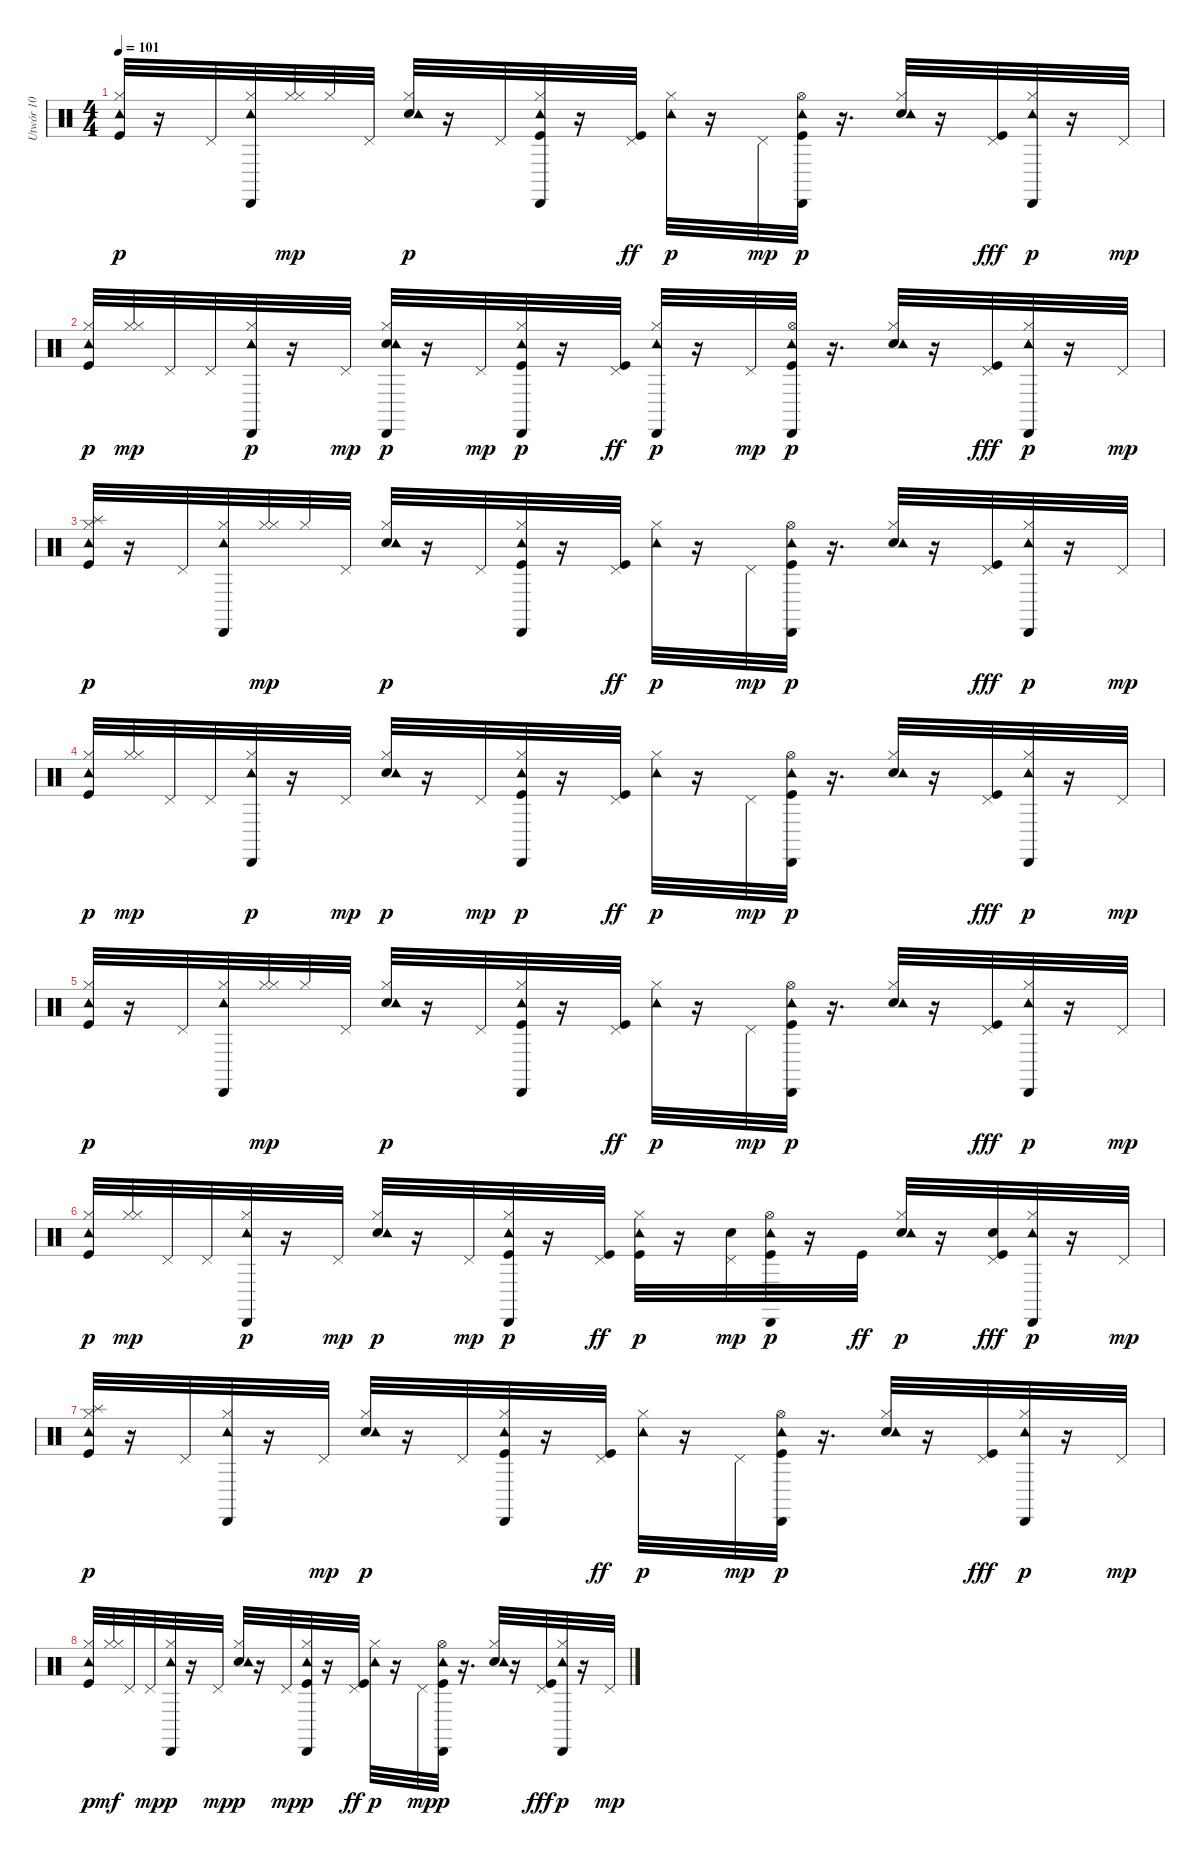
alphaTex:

\track ("Utwór 10" "Utwór 10") {instrument percussion}
\staff {score}
\articulation defaults
\ts (4 4)
\tempo 101
\clef neutral
\ks c
("Hi-Hat (closed)" "Kick (hit)" "Tambourine (hit)").32{dy p} r.16 "Pedal Hi-Hat (hit)".32 ("Cabasa (hit)" "Hi-Hat (closed)" "Tambourine (hit)").32 ("Hi-Hat (closed)" "Hi-Hat (closed)").32{dy mp} "Hi-Hat (closed)".32 "Pedal Hi-Hat (hit)".32 ("Electric Snare (hit)" "Hi-Hat (closed)" "Tambourine (hit)").32{dy p} r.16 "Pedal Hi-Hat (hit)".32 ("Cabasa (hit)" "Hi-Hat (closed)" "Kick (hit)" "Tambourine (hit)").32 r.16 ("Pedal Hi-Hat (hit)" "Kick (hit)").32{dy ff} ("Hi-Hat (closed)" "Tambourine (hit)").32{dy p} r.16 "Pedal Hi-Hat (hit)".32{dy mp} ("Cabasa (hit)" "Hi-Hat (open)" "Kick (hit)" "Tambourine (hit)").32{dy p} r.16{d} ("Electric Snare (hit)" "Hi-Hat (closed)" "Tambourine (hit)").32 r.16 ("Pedal Hi-Hat (hit)" "Kick (hit)").32{dy fff} ("Cabasa (hit)" "Hi-Hat (closed)" "Tambourine (hit)").32{dy p} r.16 "Pedal Hi-Hat (hit)".32{dy mp} |
("Hi-Hat (closed)" "Kick (hit)" "Tambourine (hit)").32{dy p} ("Hi-Hat (closed)" "Hi-Hat (closed)").32{dy mp} "Pedal Hi-Hat (hit)".32 "Pedal Hi-Hat (hit)".32 ("Hi-Hat (closed)" "Tambourine (hit)" "Cabasa (hit)").32{dy p} r.16 "Pedal Hi-Hat (hit)".32{dy mp} ("Electric Snare (hit)" "Hi-Hat (closed)" "Tambourine (hit)" "Cabasa (hit)").32{dy p} r.16 "Pedal Hi-Hat (hit)".32{dy mp} ("Cabasa (hit)" "Hi-Hat (closed)" "Kick (hit)" "Tambourine (hit)").32{dy p} r.16 ("Pedal Hi-Hat (hit)" "Kick (hit)").32{dy ff} ("Hi-Hat (closed)" "Tambourine (hit)" "Cabasa (hit)").32{dy p} r.16 "Pedal Hi-Hat (hit)".32{dy mp} ("Hi-Hat (open)" "Kick (hit)" "Tambourine (hit)" "Cabasa (hit)").32{dy p} r.16{d} ("Electric Snare (hit)" "Hi-Hat (closed)" "Tambourine (hit)").32 r.16 ("Pedal Hi-Hat (hit)" "Kick (hit)").32{dy fff} ("Cabasa (hit)" "Hi-Hat (closed)" "Tambourine (hit)").32{dy p} r.16 "Pedal Hi-Hat (hit)".32{dy mp} |
("Splash (hit)" "Hi-Hat (closed)" "Kick (hit)" "Tambourine (hit)").32{dy p} r.16 "Pedal Hi-Hat (hit)".32 ("Cabasa (hit)" "Hi-Hat (closed)" "Tambourine (hit)").32 ("Hi-Hat (closed)" "Hi-Hat (closed)").32{dy mp} "Hi-Hat (closed)".32 "Pedal Hi-Hat (hit)".32 ("Electric Snare (hit)" "Hi-Hat (closed)" "Tambourine (hit)").32{dy p} r.16 "Pedal Hi-Hat (hit)".32 ("Cabasa (hit)" "Hi-Hat (closed)" "Kick (hit)" "Tambourine (hit)").32 r.16 ("Pedal Hi-Hat (hit)" "Kick (hit)").32{dy ff} ("Hi-Hat (closed)" "Tambourine (hit)").32{dy p} r.16 "Pedal Hi-Hat (hit)".32{dy mp} ("Cabasa (hit)" "Hi-Hat (open)" "Kick (hit)" "Tambourine (hit)").32{dy p} r.16{d} ("Electric Snare (hit)" "Hi-Hat (closed)" "Tambourine (hit)").32 r.16 ("Pedal Hi-Hat (hit)" "Kick (hit)").32{dy fff} ("Cabasa (hit)" "Hi-Hat (closed)" "Tambourine (hit)").32{dy p} r.16 "Pedal Hi-Hat (hit)".32{dy mp} |
("Hi-Hat (closed)" "Kick (hit)" "Tambourine (hit)").32{dy p} ("Hi-Hat (closed)" "Hi-Hat (closed)").32{dy mp} "Pedal Hi-Hat (hit)".32 "Pedal Hi-Hat (hit)".32 ("Cabasa (hit)" "Hi-Hat (closed)" "Tambourine (hit)").32{dy p} r.16 "Pedal Hi-Hat (hit)".32{dy mp} ("Electric Snare (hit)" "Hi-Hat (closed)" "Tambourine (hit)").32{dy p} r.16 "Pedal Hi-Hat (hit)".32{dy mp} ("Cabasa (hit)" "Hi-Hat (closed)" "Kick (hit)" "Tambourine (hit)").32{dy p} r.16 ("Pedal Hi-Hat (hit)" "Kick (hit)").32{dy ff} ("Hi-Hat (closed)" "Tambourine (hit)").32{dy p} r.16 "Pedal Hi-Hat (hit)".32{dy mp} ("Cabasa (hit)" "Hi-Hat (open)" "Kick (hit)" "Tambourine (hit)").32{dy p} r.16{d} ("Electric Snare (hit)" "Hi-Hat (closed)" "Tambourine (hit)").32 r.16 ("Pedal Hi-Hat (hit)" "Kick (hit)").32{dy fff} ("Cabasa (hit)" "Hi-Hat (closed)" "Tambourine (hit)").32{dy p} r.16 "Pedal Hi-Hat (hit)".32{dy mp} |
("Hi-Hat (closed)" "Kick (hit)" "Tambourine (hit)").32{dy p} r.16 "Pedal Hi-Hat (hit)".32 ("Cabasa (hit)" "Hi-Hat (closed)" "Tambourine (hit)").32 ("Hi-Hat (closed)" "Hi-Hat (closed)").32{dy mp} "Hi-Hat (closed)".32 "Pedal Hi-Hat (hit)".32 ("Electric Snare (hit)" "Hi-Hat (closed)" "Tambourine (hit)").32{dy p} r.16 "Pedal Hi-Hat (hit)".32 ("Cabasa (hit)" "Hi-Hat (closed)" "Kick (hit)" "Tambourine (hit)").32 r.16 ("Pedal Hi-Hat (hit)" "Kick (hit)").32{dy ff} ("Hi-Hat (closed)" "Tambourine (hit)").32{dy p} r.16 "Pedal Hi-Hat (hit)".32{dy mp} ("Cabasa (hit)" "Hi-Hat (open)" "Kick (hit)" "Tambourine (hit)").32{dy p} r.16{d} ("Electric Snare (hit)" "Hi-Hat (closed)" "Tambourine (hit)").32 r.16 ("Pedal Hi-Hat (hit)" "Kick (hit)").32{dy fff} ("Cabasa (hit)" "Hi-Hat (closed)" "Tambourine (hit)").32{dy p} r.16 "Pedal Hi-Hat (hit)".32{dy mp} |
("Hi-Hat (closed)" "Kick (hit)" "Tambourine (hit)").32{dy p} ("Hi-Hat (closed)" "Hi-Hat (closed)").32{dy mp} "Pedal Hi-Hat (hit)".32 "Pedal Hi-Hat (hit)".32 ("Cabasa (hit)" "Hi-Hat (closed)" "Tambourine (hit)").32{dy p} r.16 "Pedal Hi-Hat (hit)".32{dy mp} ("Electric Snare (hit)" "Hi-Hat (closed)" "Tambourine (hit)").32{dy p} r.16 "Pedal Hi-Hat (hit)".32{dy mp} ("Cabasa (hit)" "Hi-Hat (closed)" "Kick (hit)" "Tambourine (hit)").32{dy p} r.16 ("Pedal Hi-Hat (hit)" "Kick (hit)").32{dy ff} ("Hi-Hat (closed)" "Kick (hit)" "Tambourine (hit)").32{dy p} r.16 ("Electric Snare (hit)" "Pedal Hi-Hat (hit)").32{dy mp} ("Cabasa (hit)" "Hi-Hat (open)" "Kick (hit)" "Tambourine (hit)").32{dy p} r.16 "Kick (hit)".32{dy ff} ("Electric Snare (hit)" "Hi-Hat (closed)" "Tambourine (hit)").32{dy p} r.16 ("Electric Snare (hit)" "Pedal Hi-Hat (hit)" "Kick (hit)").32{dy fff} ("Cabasa (hit)" "Hi-Hat (closed)" "Tambourine (hit)").32{dy p} r.16 "Pedal Hi-Hat (hit)".32{dy mp} |
("Splash (hit)" "Hi-Hat (closed)" "Kick (hit)" "Tambourine (hit)").32{dy p} r.16 "Pedal Hi-Hat (hit)".32 ("Cabasa (hit)" "Hi-Hat (closed)" "Tambourine (hit)").32 r.16 "Pedal Hi-Hat (hit)".32{dy mp} ("Electric Snare (hit)" "Hi-Hat (closed)" "Tambourine (hit)").32{dy p} r.16 "Pedal Hi-Hat (hit)".32 ("Cabasa (hit)" "Hi-Hat (closed)" "Kick (hit)" "Tambourine (hit)").32 r.16 ("Pedal Hi-Hat (hit)" "Kick (hit)").32{dy ff} ("Hi-Hat (closed)" "Tambourine (hit)").32{dy p} r.16 "Pedal Hi-Hat (hit)".32{dy mp} ("Cabasa (hit)" "Hi-Hat (open)" "Kick (hit)" "Tambourine (hit)").32{dy p} r.16{d} ("Electric Snare (hit)" "Hi-Hat (closed)" "Tambourine (hit)").32 r.16 ("Pedal Hi-Hat (hit)" "Kick (hit)").32{dy fff} ("Cabasa (hit)" "Hi-Hat (closed)" "Tambourine (hit)").32{dy p} r.16 "Pedal Hi-Hat (hit)".32{dy mp} |
("Hi-Hat (closed)" "Kick (hit)" "Tambourine (hit)").32{dy p} ("Hi-Hat (closed)" "Hi-Hat (closed)").32{dy mf} "Pedal Hi-Hat (hit)".32 "Pedal Hi-Hat (hit)".32{dy mp} ("Cabasa (hit)" "Hi-Hat (closed)" "Tambourine (hit)").32{dy p} r.16 "Pedal Hi-Hat (hit)".32{dy mp} ("Electric Snare (hit)" "Hi-Hat (closed)" "Tambourine (hit)").32{dy p} r.16 "Pedal Hi-Hat (hit)".32{dy mp} ("Cabasa (hit)" "Hi-Hat (closed)" "Kick (hit)" "Tambourine (hit)").32{dy p} r.16 ("Pedal Hi-Hat (hit)" "Kick (hit)").32{dy ff} ("Hi-Hat (closed)" "Tambourine (hit)").32{dy p} r.16 "Pedal Hi-Hat (hit)".32{dy mp} ("Cabasa (hit)" "Hi-Hat (open)" "Kick (hit)" "Tambourine (hit)").32{dy p} r.16{d} ("Electric Snare (hit)" "Hi-Hat (closed)" "Tambourine (hit)").32 r.16 ("Pedal Hi-Hat (hit)" "Kick (hit)").32{dy fff} ("Cabasa (hit)" "Hi-Hat (closed)" "Tambourine (hit)").32{dy p} r.16 "Pedal Hi-Hat (hit)".32{dy mp}
